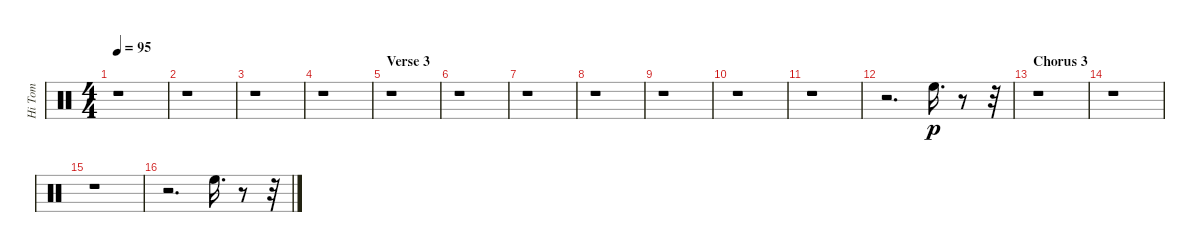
\track ("Hi Tom" "Hi Tom") {instrument percussion}
\staff {score}
\articulation defaults
\ts (4 4)
\tempo 95
\clef neutral
\ks c
r.1{dy p} |
r.1 |
r.1 |
r.1 |
\section ("" "Verse 3")
r.1 |
r.1 |
r.1 |
r.1 |
r.1 |
r.1 |
r.1 |
r.2{d} "High Floor Tom (hit)".16{d} r.8 r.32 |
\section ("" "Chorus 3")
r.1 |
r.1 |
r.1 |
r.2{d} "High Floor Tom (hit)".16{d} r.8 r.32
